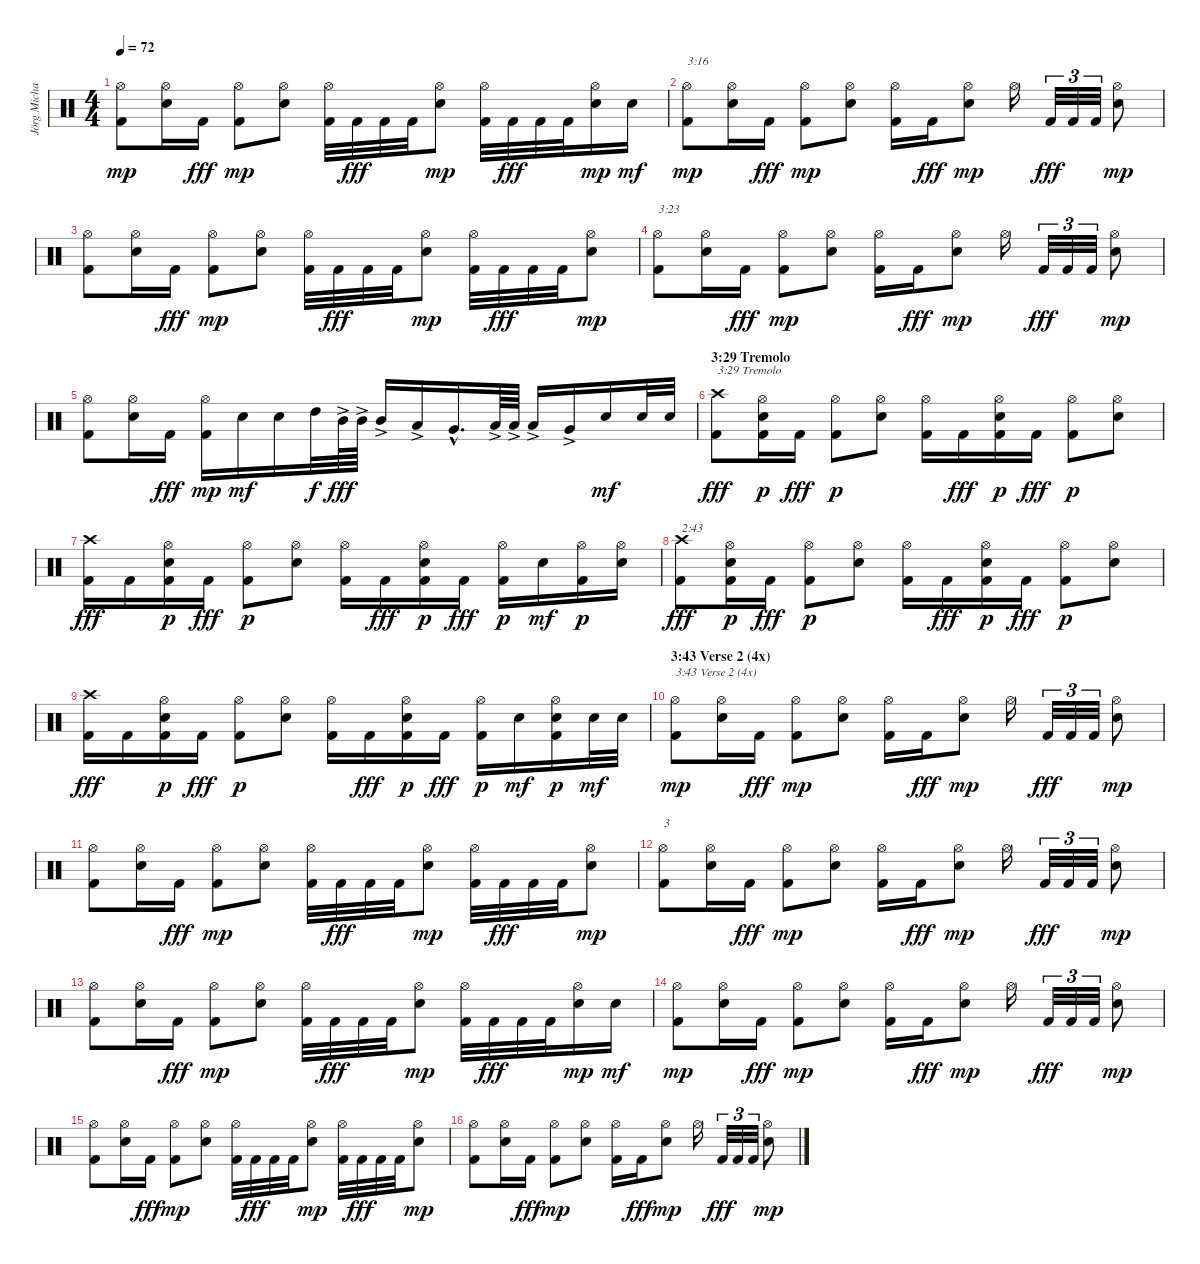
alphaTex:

\track ("Jörg Michael" "Jörg Micha") {instrument percussion}
\staff {score}
\articulation defaults
\ts (4 4)
\tempo 72
\clef neutral
\ks c
("Kick (hit) 2" "Hi-Hat (open)").8{dy mp} ("Snare (hit) 2" "Hi-Hat (open)").16 "Kick (hit) 2".16{dy fff} ("Kick (hit) 2" "Hi-Hat (open)").8{dy mp} ("Snare (hit) 2" "Hi-Hat (open)").8 ("Kick (hit) 2" "Hi-Hat (open)").32 "Kick (hit) 2".32{dy fff} "Kick (hit) 2".32 "Kick (hit) 2".32 ("Snare (hit) 2" "Hi-Hat (open)").8{dy mp} ("Kick (hit) 2" "Hi-Hat (open)").32 "Kick (hit) 2".32{dy fff} "Kick (hit) 2".32 "Kick (hit) 2".32 ("Snare (hit) 2" "Hi-Hat (open)").16{dy mp} "Snare (hit) 2".16{dy mf} |
("Kick (hit) 2" "Hi-Hat (open)").8{txt "3:16" dy mp} ("Snare (hit) 2" "Hi-Hat (open)").16 "Kick (hit) 2".16{dy fff} ("Kick (hit) 2" "Hi-Hat (open)").8{dy mp} ("Snare (hit) 2" "Hi-Hat (open)").8 ("Kick (hit) 2" "Hi-Hat (open)").16 "Kick (hit) 2".16{dy fff} ("Snare (hit) 2" "Hi-Hat (open)").8{dy mp} "Hi-Hat (open)".16 "Kick (hit) 2".32{tu (3 2) dy fff} "Kick (hit) 2".32{tu (3 2)} "Kick (hit) 2".32{tu (3 2)} ("Snare (hit) 2" "Hi-Hat (open)").8{dy mp} |
("Kick (hit) 2" "Hi-Hat (open)").8 ("Snare (hit) 2" "Hi-Hat (open)").16 "Kick (hit) 2".16{dy fff} ("Kick (hit) 2" "Hi-Hat (open)").8{dy mp} ("Snare (hit) 2" "Hi-Hat (open)").8 ("Kick (hit) 2" "Hi-Hat (open)").32 "Kick (hit) 2".32{dy fff} "Kick (hit) 2".32 "Kick (hit) 2".32 ("Snare (hit) 2" "Hi-Hat (open)").8{dy mp} ("Kick (hit) 2" "Hi-Hat (open)").32 "Kick (hit) 2".32{dy fff} "Kick (hit) 2".32 "Kick (hit) 2".32 ("Snare (hit) 2" "Hi-Hat (open)").8{dy mp} |
("Kick (hit) 2" "Hi-Hat (open)").8{txt "3:23"} ("Snare (hit) 2" "Hi-Hat (open)").16 "Kick (hit) 2".16{dy fff} ("Kick (hit) 2" "Hi-Hat (open)").8{dy mp} ("Snare (hit) 2" "Hi-Hat (open)").8 ("Kick (hit) 2" "Hi-Hat (open)").16 "Kick (hit) 2".16{dy fff} ("Snare (hit) 2" "Hi-Hat (open)").8{dy mp} "Hi-Hat (open)".16 "Kick (hit) 2".32{tu (3 2) dy fff} "Kick (hit) 2".32{tu (3 2)} "Kick (hit) 2".32{tu (3 2)} ("Snare (hit) 2" "Hi-Hat (open)").8{dy mp} |
("Kick (hit) 2" "Hi-Hat (open)").8 ("Snare (hit) 2" "Hi-Hat (open)").16 "Kick (hit) 2".16{dy fff} ("Kick (hit) 2" "Hi-Hat (open)").16{dy mp} "Snare (hit) 2".16{dy mf} "Snare (hit) 2".16 "High Tom (hit)".32{dy f} "Mid Tom (hit)"{ac}.64{dy fff} "Mid Tom (hit)"{ac}.64 "Mid Tom (hit)"{ac}.16 "Low Tom (hit)"{ac}.16 "Very Low Tom (hit)"{hac}.16{d} "Low Tom (hit)"{ac}.64 "Low Tom (hit)"{ac}.64 "Low Tom (hit)"{ac}.16 "Very Low Tom (hit)"{ac}.16 "Snare (hit) 2".16{dy mf} "Snare (hit) 2".32 "Snare (hit) 2".32 |
\section ("" "3:29 Tremolo")
("Kick (hit) 2" "Crash high (hit)").8{txt "3:29 Tremolo" dy fff} ("Kick (hit) 2" "Snare (hit) 2" "Hi-Hat (open)").16{dy p} "Kick (hit) 2".16{dy fff} ("Kick (hit) 2" "Hi-Hat (open)").8{dy p} ("Snare (hit) 2" "Hi-Hat (open)").8 ("Kick (hit) 2" "Hi-Hat (open)").16 "Kick (hit) 2".16{dy fff} ("Kick (hit) 2" "Snare (hit) 2" "Hi-Hat (open)").16{dy p} "Kick (hit) 2".16{dy fff} ("Kick (hit) 2" "Hi-Hat (open)").8{dy p} ("Snare (hit) 2" "Hi-Hat (open)").8 |
("Kick (hit) 2" "Crash high (hit)").16{dy fff} "Kick (hit) 2".16 ("Kick (hit) 2" "Snare (hit) 2" "Hi-Hat (open)").16{dy p} "Kick (hit) 2".16{dy fff} ("Kick (hit) 2" "Hi-Hat (open)").8{dy p} ("Snare (hit) 2" "Hi-Hat (open)").8 ("Kick (hit) 2" "Hi-Hat (open)").16 "Kick (hit) 2".16{dy fff} ("Kick (hit) 2" "Snare (hit) 2" "Hi-Hat (open)").16{dy p} "Kick (hit) 2".16{dy fff} ("Kick (hit) 2" "Hi-Hat (open)").16{dy p} "Snare (hit) 2".16{dy mf} ("Kick (hit) 2" "Hi-Hat (open)").16{dy p} ("Snare (hit) 2" "Hi-Hat (open)").16 |
("Kick (hit) 2" "Crash high (hit)").8{txt "2:43" dy fff} ("Kick (hit) 2" "Snare (hit) 2" "Hi-Hat (open)").16{dy p} "Kick (hit) 2".16{dy fff} ("Kick (hit) 2" "Hi-Hat (open)").8{dy p} ("Snare (hit) 2" "Hi-Hat (open)").8 ("Kick (hit) 2" "Hi-Hat (open)").16 "Kick (hit) 2".16{dy fff} ("Kick (hit) 2" "Snare (hit) 2" "Hi-Hat (open)").16{dy p} "Kick (hit) 2".16{dy fff} ("Kick (hit) 2" "Hi-Hat (open)").8{dy p} ("Snare (hit) 2" "Hi-Hat (open)").8 |
("Kick (hit) 2" "Crash high (hit)").16{dy fff} "Kick (hit) 2".16 ("Kick (hit) 2" "Snare (hit) 2" "Hi-Hat (open)").16{dy p} "Kick (hit) 2".16{dy fff} ("Kick (hit) 2" "Hi-Hat (open)").8{dy p} ("Snare (hit) 2" "Hi-Hat (open)").8 ("Kick (hit) 2" "Hi-Hat (open)").16 "Kick (hit) 2".16{dy fff} ("Kick (hit) 2" "Snare (hit) 2" "Hi-Hat (open)").16{dy p} "Kick (hit) 2".16{dy fff} ("Kick (hit) 2" "Hi-Hat (open)").16{dy p} "Snare (hit) 2".16{dy mf} ("Kick (hit) 2" "Snare (hit) 2" "Hi-Hat (open)").16{dy p} "Snare (hit) 2".32{dy mf} "Snare (hit) 2".32 |
\section ("" "3:43 Verse 2 (4x)")
("Kick (hit) 2" "Hi-Hat (open)").8{txt "3:43 Verse 2 (4x)" dy mp} ("Snare (hit) 2" "Hi-Hat (open)").16 "Kick (hit) 2".16{dy fff} ("Kick (hit) 2" "Hi-Hat (open)").8{dy mp} ("Snare (hit) 2" "Hi-Hat (open)").8 ("Kick (hit) 2" "Hi-Hat (open)").16 "Kick (hit) 2".16{dy fff} ("Snare (hit) 2" "Hi-Hat (open)").8{dy mp} "Hi-Hat (open)".16 "Kick (hit) 2".32{tu (3 2) dy fff} "Kick (hit) 2".32{tu (3 2)} "Kick (hit) 2".32{tu (3 2)} ("Snare (hit) 2" "Hi-Hat (open)").8{dy mp} |
("Kick (hit) 2" "Hi-Hat (open)").8 ("Snare (hit) 2" "Hi-Hat (open)").16 "Kick (hit) 2".16{dy fff} ("Kick (hit) 2" "Hi-Hat (open)").8{dy mp} ("Snare (hit) 2" "Hi-Hat (open)").8 ("Kick (hit) 2" "Hi-Hat (open)").32 "Kick (hit) 2".32{dy fff} "Kick (hit) 2".32 "Kick (hit) 2".32 ("Snare (hit) 2" "Hi-Hat (open)").8{dy mp} ("Kick (hit) 2" "Hi-Hat (open)").32 "Kick (hit) 2".32{dy fff} "Kick (hit) 2".32 "Kick (hit) 2".32 ("Snare (hit) 2" "Hi-Hat (open)").8{dy mp} |
("Kick (hit) 2" "Hi-Hat (open)").8{txt "3"} ("Snare (hit) 2" "Hi-Hat (open)").16 "Kick (hit) 2".16{dy fff} ("Kick (hit) 2" "Hi-Hat (open)").8{dy mp} ("Snare (hit) 2" "Hi-Hat (open)").8 ("Kick (hit) 2" "Hi-Hat (open)").16 "Kick (hit) 2".16{dy fff} ("Snare (hit) 2" "Hi-Hat (open)").8{dy mp} "Hi-Hat (open)".16 "Kick (hit) 2".32{tu (3 2) dy fff} "Kick (hit) 2".32{tu (3 2)} "Kick (hit) 2".32{tu (3 2)} ("Snare (hit) 2" "Hi-Hat (open)").8{dy mp} |
("Kick (hit) 2" "Hi-Hat (open)").8 ("Snare (hit) 2" "Hi-Hat (open)").16 "Kick (hit) 2".16{dy fff} ("Kick (hit) 2" "Hi-Hat (open)").8{dy mp} ("Snare (hit) 2" "Hi-Hat (open)").8 ("Kick (hit) 2" "Hi-Hat (open)").32 "Kick (hit) 2".32{dy fff} "Kick (hit) 2".32 "Kick (hit) 2".32 ("Snare (hit) 2" "Hi-Hat (open)").8{dy mp} ("Kick (hit) 2" "Hi-Hat (open)").32 "Kick (hit) 2".32{dy fff} "Kick (hit) 2".32 "Kick (hit) 2".32 ("Snare (hit) 2" "Hi-Hat (open)").16{dy mp} "Snare (hit) 2".16{dy mf} |
("Kick (hit) 2" "Hi-Hat (open)").8{dy mp} ("Snare (hit) 2" "Hi-Hat (open)").16 "Kick (hit) 2".16{dy fff} ("Kick (hit) 2" "Hi-Hat (open)").8{dy mp} ("Snare (hit) 2" "Hi-Hat (open)").8 ("Kick (hit) 2" "Hi-Hat (open)").16 "Kick (hit) 2".16{dy fff} ("Snare (hit) 2" "Hi-Hat (open)").8{dy mp} "Hi-Hat (open)".16 "Kick (hit) 2".32{tu (3 2) dy fff} "Kick (hit) 2".32{tu (3 2)} "Kick (hit) 2".32{tu (3 2)} ("Snare (hit) 2" "Hi-Hat (open)").8{dy mp} |
("Kick (hit) 2" "Hi-Hat (open)").8 ("Snare (hit) 2" "Hi-Hat (open)").16 "Kick (hit) 2".16{dy fff} ("Kick (hit) 2" "Hi-Hat (open)").8{dy mp} ("Snare (hit) 2" "Hi-Hat (open)").8 ("Kick (hit) 2" "Hi-Hat (open)").32 "Kick (hit) 2".32{dy fff} "Kick (hit) 2".32 "Kick (hit) 2".32 ("Snare (hit) 2" "Hi-Hat (open)").8{dy mp} ("Kick (hit) 2" "Hi-Hat (open)").32 "Kick (hit) 2".32{dy fff} "Kick (hit) 2".32 "Kick (hit) 2".32 ("Snare (hit) 2" "Hi-Hat (open)").8{dy mp} |
("Kick (hit) 2" "Hi-Hat (open)").8 ("Snare (hit) 2" "Hi-Hat (open)").16 "Kick (hit) 2".16{dy fff} ("Kick (hit) 2" "Hi-Hat (open)").8{dy mp} ("Snare (hit) 2" "Hi-Hat (open)").8 ("Kick (hit) 2" "Hi-Hat (open)").16 "Kick (hit) 2".16{dy fff} ("Snare (hit) 2" "Hi-Hat (open)").8{dy mp} "Hi-Hat (open)".16 "Kick (hit) 2".32{tu (3 2) dy fff} "Kick (hit) 2".32{tu (3 2)} "Kick (hit) 2".32{tu (3 2)} ("Snare (hit) 2" "Hi-Hat (open)").8{dy mp}
